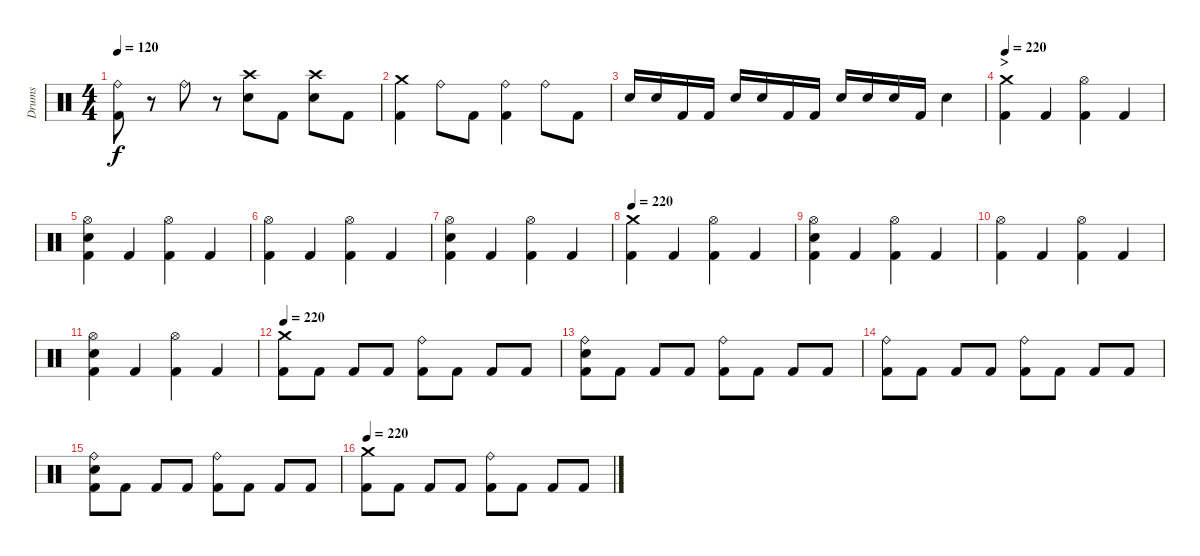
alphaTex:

\track ("Drums" "Drums") {instrument percussion}
\staff {score}
\articulation defaults
\ts (4 4)
\tempo 120
\clef neutral
\ks c
("Ride (bell)" "Kick (hit) 2").8{dy f} r.8 "Ride (bell)".8 r.8 ("Crash high (hit)" "Electric Snare (hit)").8 "Kick (hit) 2".8 ("Crash high (hit)" "Electric Snare (hit)").8 "Kick (hit) 2".8 |
("Crash medium (hit)" "Kick (hit) 2").4 "Ride (bell)".8 "Kick (hit) 2".8 ("Ride (bell)" "Kick (hit) 2").4 "Ride (bell)".8 "Kick (hit) 2".8 |
"Electric Snare (hit)".16 "Electric Snare (hit)".16 "Kick (hit) 2".16 "Kick (hit) 2".16 "Electric Snare (hit)".16 "Electric Snare (hit)".16 "Kick (hit) 2".16 "Kick (hit) 2".16 "Electric Snare (hit)".16 "Electric Snare (hit)".16 "Electric Snare (hit)".16 "Kick (hit) 2".16 "Electric Snare (hit)".4 |
\section ("" ">")
\tempo 250
\tempo 220
("Crash medium (hit)" "Kick (hit) 2").4 "Kick (hit) 2".4 ("Hi-Hat (open)" "Kick (hit) 2").4 "Kick (hit) 2".4 |
("Hi-Hat (open)" "Electric Snare (hit)" "Kick (hit) 2").4 "Kick (hit) 2".4 ("Hi-Hat (open)" "Kick (hit) 2").4 "Kick (hit) 2".4 |
("Hi-Hat (open)" "Kick (hit) 2").4 "Kick (hit) 2".4 ("Hi-Hat (open)" "Kick (hit) 2").4 "Kick (hit) 2".4 |
("Hi-Hat (open)" "Electric Snare (hit)" "Kick (hit) 2").4 "Kick (hit) 2".4 ("Hi-Hat (open)" "Kick (hit) 2").4 "Kick (hit) 2".4 |
\tempo 220
("Crash medium (hit)" "Kick (hit) 2").4 "Kick (hit) 2".4 ("Hi-Hat (open)" "Kick (hit) 2").4 "Kick (hit) 2".4 |
("Hi-Hat (open)" "Electric Snare (hit)" "Kick (hit) 2").4 "Kick (hit) 2".4 ("Hi-Hat (open)" "Kick (hit) 2").4 "Kick (hit) 2".4 |
("Hi-Hat (open)" "Kick (hit) 2").4 "Kick (hit) 2".4 ("Hi-Hat (open)" "Kick (hit) 2").4 "Kick (hit) 2".4 |
("Hi-Hat (open)" "Electric Snare (hit)" "Kick (hit) 2").4 "Kick (hit) 2".4 ("Hi-Hat (open)" "Kick (hit) 2").4 "Kick (hit) 2".4 |
\tempo 220
("Crash medium (hit)" "Kick (hit) 2").8 "Kick (hit) 2".8 "Kick (hit) 2".8 "Kick (hit) 2".8 ("Ride (bell)" "Kick (hit) 2").8 "Kick (hit) 2".8 "Kick (hit) 2".8 "Kick (hit) 2".8 |
("Ride (bell)" "Electric Snare (hit)" "Kick (hit) 2").8 "Kick (hit) 2".8 "Kick (hit) 2".8 "Kick (hit) 2".8 ("Ride (bell)" "Kick (hit) 2").8 "Kick (hit) 2".8 "Kick (hit) 2".8 "Kick (hit) 2".8 |
("Ride (bell)" "Kick (hit) 2").8 "Kick (hit) 2".8 "Kick (hit) 2".8 "Kick (hit) 2".8 ("Ride (bell)" "Kick (hit) 2").8 "Kick (hit) 2".8 "Kick (hit) 2".8 "Kick (hit) 2".8 |
("Ride (bell)" "Electric Snare (hit)" "Kick (hit) 2").8 "Kick (hit) 2".8 "Kick (hit) 2".8 "Kick (hit) 2".8 ("Ride (bell)" "Kick (hit) 2").8 "Kick (hit) 2".8 "Kick (hit) 2".8 "Kick (hit) 2".8 |
\tempo 220
("Crash medium (hit)" "Kick (hit) 2").8 "Kick (hit) 2".8 "Kick (hit) 2".8 "Kick (hit) 2".8 ("Ride (bell)" "Kick (hit) 2").8 "Kick (hit) 2".8 "Kick (hit) 2".8 "Kick (hit) 2".8
